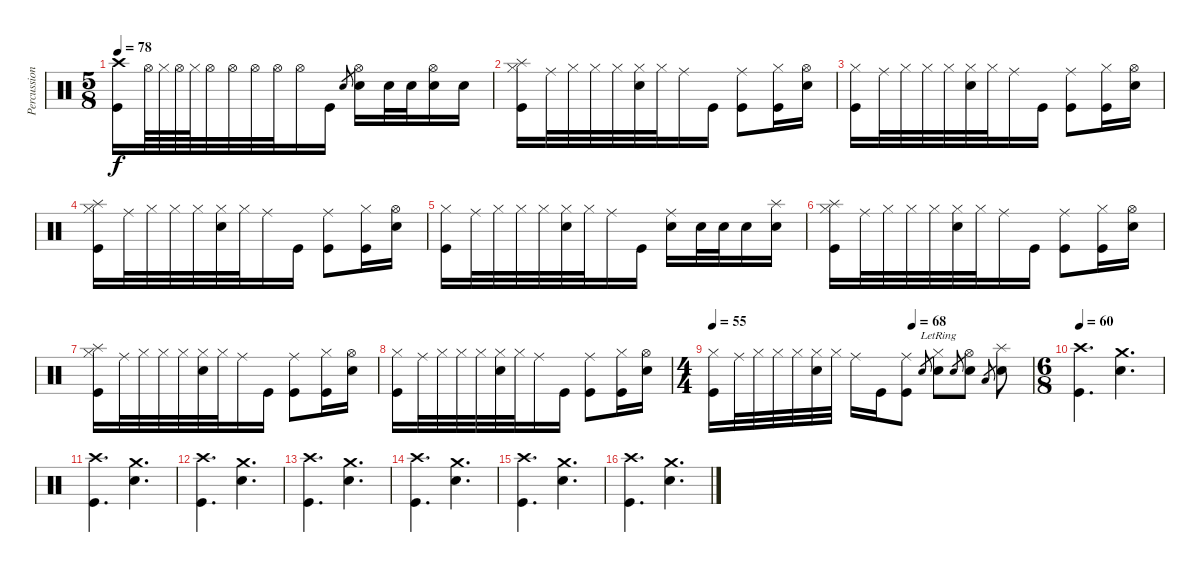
\track ("Percussions" "Percussion") {instrument percussion}
\staff {score}
\articulation defaults
\ts (5 8)
\tempo 78
\clef neutral
\ks c
("Crash high (hit)" "Kick (hit)").16{dy f} "Hi-Hat (open)".64 "Hi-Hat (closed)".64 "Hi-Hat (open)".64 "Hi-Hat (closed)".64 "Hi-Hat (open)".32 "Hi-Hat (open)".32 "Hi-Hat (open)".32 "Hi-Hat (open)".32 "Hi-Hat (open)".16 "Kick (hit)".16 "Snare (hit) 2".8{gr} ("Hi-Hat (open)" "Snare (hit) 2").16 "Snare (hit) 2".32 "Snare (hit) 2".32 ("Hi-Hat (open)" "Snare (hit) 2").16 "Snare (hit) 2".16 |
("Splash (hit)" "Hi-Hat (closed)" "Kick (hit)").16 "Ride (middle)".32 "Hi-Hat (closed)".32 "Hi-Hat (closed)".32 "Hi-Hat (closed)".32 ("Hi-Hat (closed)" "Snare (hit) 2").32 "Hi-Hat (closed)".32 "Ride (middle)".16 "Kick (hit)".16 ("Ride (middle)" "Kick (hit)").8 ("Hi-Hat (closed)" "Kick (hit)").16 ("Hi-Hat (open)" "Snare (hit) 2").16 |
("Hi-Hat (closed)" "Kick (hit)").16 "Ride (middle)".32 "Hi-Hat (closed)".32 "Hi-Hat (closed)".32 "Hi-Hat (closed)".32 ("Hi-Hat (closed)" "Snare (hit) 2").32 "Hi-Hat (closed)".32 "Ride (middle)".16 "Kick (hit)".16 ("Ride (middle)" "Kick (hit)").8 ("Hi-Hat (closed)" "Kick (hit)").16 ("Hi-Hat (open)" "Snare (hit) 2").16 |
("Splash (hit)" "Hi-Hat (closed)" "Kick (hit)").16 "Ride (middle)".32 "Hi-Hat (closed)".32 "Hi-Hat (closed)".32 "Hi-Hat (closed)".32 ("Hi-Hat (closed)" "Snare (hit) 2").32 "Hi-Hat (closed)".32 "Ride (middle)".16 "Kick (hit)".16 ("Ride (middle)" "Kick (hit)").8 ("Hi-Hat (closed)" "Kick (hit)").16 ("Hi-Hat (open)" "Snare (hit) 2").16 |
("Hi-Hat (closed)" "Kick (hit)").16 "Ride (middle)".32 "Hi-Hat (closed)".32 "Hi-Hat (closed)".32 "Hi-Hat (closed)".32 ("Hi-Hat (closed)" "Snare (hit) 2").32 "Hi-Hat (closed)".32 "Ride (middle)".16 "Kick (hit)".16 ("Ride (middle)" "Snare (hit) 2").16 "Snare (hit) 2".32 "Snare (hit) 2".32 "Snare (hit) 2".16 ("Splash (hit)" "Snare (hit) 2").16 |
("Splash (hit)" "Hi-Hat (closed)" "Kick (hit)").16 "Ride (middle)".32 "Hi-Hat (closed)".32 "Hi-Hat (closed)".32 "Hi-Hat (closed)".32 ("Hi-Hat (closed)" "Snare (hit) 2").32 "Hi-Hat (closed)".32 "Ride (middle)".16 "Kick (hit)".16 ("Ride (middle)" "Kick (hit)").8 ("Hi-Hat (closed)" "Kick (hit)").16 ("Hi-Hat (open)" "Snare (hit) 2").16 |
("Splash (hit)" "Hi-Hat (closed)" "Kick (hit)").16 "Ride (middle)".32 "Hi-Hat (closed)".32 "Hi-Hat (closed)".32 "Hi-Hat (closed)".32 ("Hi-Hat (closed)" "Snare (hit) 2").32 "Hi-Hat (closed)".32 "Ride (middle)".16 "Kick (hit)".16 ("Ride (middle)" "Kick (hit)").8 ("Hi-Hat (closed)" "Kick (hit)").16 ("Hi-Hat (open)" "Snare (hit) 2").16 |
("Hi-Hat (closed)" "Kick (hit)").16 "Ride (middle)".32 "Hi-Hat (closed)".32 "Hi-Hat (closed)".32 "Hi-Hat (closed)".32 ("Hi-Hat (closed)" "Snare (hit) 2").32 "Hi-Hat (closed)".32 "Ride (middle)".16 "Kick (hit)".16 ("Ride (middle)" "Kick (hit)").8 ("Hi-Hat (closed)" "Kick (hit)").16 ("Hi-Hat (open)" "Snare (hit) 2").16 |
\ts (4 4)
\tempo (68 0.625)
\tempo 55
("Hi-Hat (closed)" "Kick (hit)").16 "Ride (middle)".32 "Hi-Hat (closed)".32 "Hi-Hat (closed)".32 "Hi-Hat (closed)".32 ("Hi-Hat (closed)" "Snare (hit) 2").32 "Hi-Hat (closed)".32 "Ride (middle)".16 "Kick (hit)".16 ("Ride (middle)" "Kick (hit)").8 "Snare (hit) 2".8{gr} ("Hi-Hat (closed)" "Snare (hit) 2"{lr}).8 "Snare (hit) 2".8{gr} ("Hi-Hat (open)" "Snare (hit) 2").8 "Low Tom (hit)".8{gr} ("Splash (hit)" "Snare (hit) 2").8 |
\ts (6 8)
\tempo 60
("Crash high (hit)" "Kick (hit)").4{d} ("Crash medium (hit)" "Snare (hit) 2").4{d} |
("Crash high (hit)" "Kick (hit)").4{d} ("Crash medium (hit)" "Snare (hit) 2").4{d} |
("Crash high (hit)" "Kick (hit)").4{d} ("Crash medium (hit)" "Snare (hit) 2").4{d} |
("Crash high (hit)" "Kick (hit)").4{d} ("Crash medium (hit)" "Snare (hit) 2").4{d} |
("Crash high (hit)" "Kick (hit)").4{d} ("Crash medium (hit)" "Snare (hit) 2").4{d} |
("Crash high (hit)" "Kick (hit)").4{d} ("Crash medium (hit)" "Snare (hit) 2").4{d} |
("Crash high (hit)" "Kick (hit)").4{d} ("Crash medium (hit)" "Snare (hit) 2").4{d}
